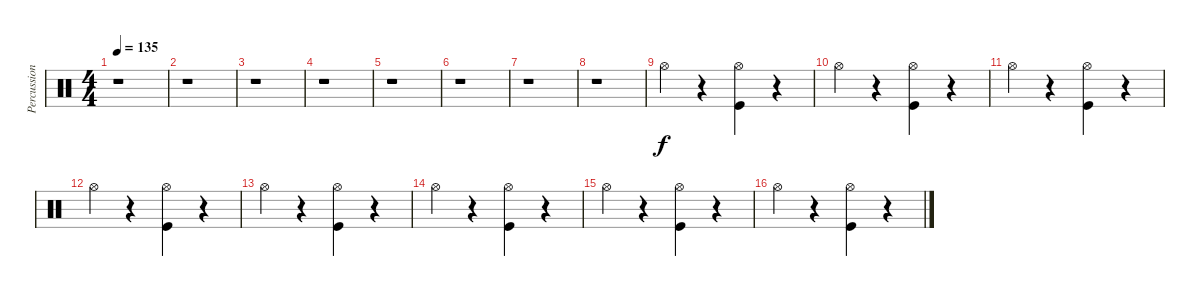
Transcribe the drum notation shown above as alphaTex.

\track ("Percussions" "Percussion") {instrument percussion}
\staff {score}
\articulation defaults
\ts (4 4)
\tempo 135
\clef neutral
\ks c
r.1{dy f} |
r.1 |
r.1 |
r.1 |
r.1 |
r.1 |
r.1 |
r.1 |
"Hi-Hat (open)".4 r.4 ("Kick (hit)" "Hi-Hat (open)").4 r.4 |
"Hi-Hat (open)".4 r.4 ("Kick (hit)" "Hi-Hat (open)").4 r.4 |
"Hi-Hat (open)".4 r.4 ("Kick (hit)" "Hi-Hat (open)").4 r.4 |
"Hi-Hat (open)".4 r.4 ("Kick (hit)" "Hi-Hat (open)").4 r.4 |
"Hi-Hat (open)".4 r.4 ("Kick (hit)" "Hi-Hat (open)").4 r.4 |
"Hi-Hat (open)".4 r.4 ("Kick (hit)" "Hi-Hat (open)").4 r.4 |
"Hi-Hat (open)".4 r.4 ("Kick (hit)" "Hi-Hat (open)").4 r.4 |
"Hi-Hat (open)".4 r.4 ("Kick (hit)" "Hi-Hat (open)").4 r.4
